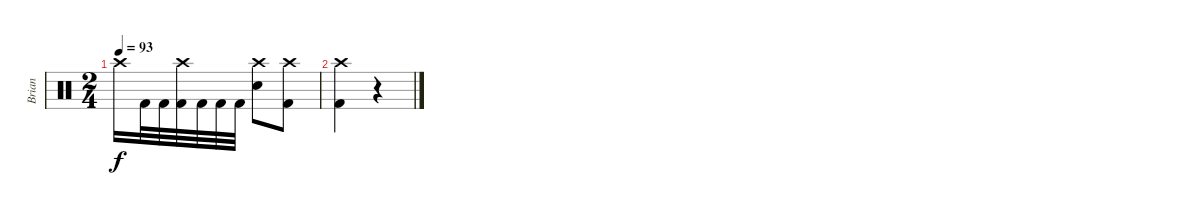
\track ("Brian" "Brian") {instrument percussion}
\staff {score}
\articulation defaults
\ts (2 4)
\tempo 93
\clef neutral
\ks c "Crash high (hit)".16{dy f} "Kick (hit) 2".32 "Kick (hit) 2".32
("Crash high (hit)" "Kick (hit) 2").32 "Kick (hit) 2".32 "Kick (hit) 2".32 "Kick (hit) 2".32 ("Crash high (hit)" "Electric Snare (hit)").8 ("Crash high (hit)" "Kick (hit) 2").8 |
("Crash high (hit)" "Kick (hit) 2").4 r.4
